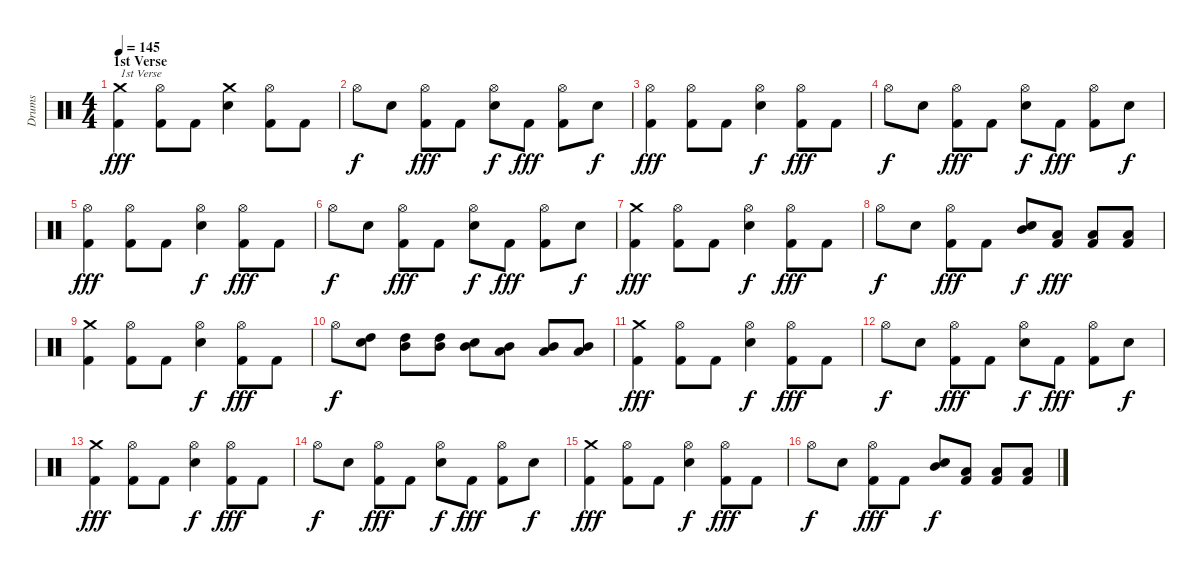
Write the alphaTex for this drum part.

\track ("Drums" "Drums") {instrument percussion}
\staff {score}
\articulation defaults
\ts (4 4)
\section ("" "1st Verse")
\tempo 145
\clef neutral
\ks c
("Crash medium (hit)" "Kick (hit) 2").4{txt "1st Verse" dy fff} ("Hi-Hat (open)" "Kick (hit) 2").8 "Kick (hit) 2".8 ("Crash medium (hit)" "Snare (hit) 2").4 ("Hi-Hat (open)" "Kick (hit) 2").8 "Kick (hit) 2".8 |
"Hi-Hat (open)".8{dy f} "Snare (hit) 2".8 ("Hi-Hat (open)" "Kick (hit) 2").8{dy fff} "Kick (hit) 2".8 ("Hi-Hat (open)" "Snare (hit) 2").8{dy f} "Kick (hit) 2".8{dy fff} ("Hi-Hat (open)" "Kick (hit) 2").8 "Snare (hit) 2".8{dy f} |
("Hi-Hat (open)" "Kick (hit) 2").4{dy fff} ("Hi-Hat (open)" "Kick (hit) 2").8 "Kick (hit) 2".8 ("Hi-Hat (open)" "Snare (hit) 2").4{dy f} ("Hi-Hat (open)" "Kick (hit) 2").8{dy fff} "Kick (hit) 2".8 |
"Hi-Hat (open)".8{dy f} "Snare (hit) 2".8 ("Hi-Hat (open)" "Kick (hit) 2").8{dy fff} "Kick (hit) 2".8 ("Hi-Hat (open)" "Snare (hit) 2").8{dy f} "Kick (hit) 2".8{dy fff} ("Hi-Hat (open)" "Kick (hit) 2").8 "Snare (hit) 2".8{dy f} |
("Hi-Hat (open)" "Kick (hit) 2").4{dy fff} ("Hi-Hat (open)" "Kick (hit) 2").8 "Kick (hit) 2".8 ("Hi-Hat (open)" "Snare (hit) 2").4{dy f} ("Hi-Hat (open)" "Kick (hit) 2").8{dy fff} "Kick (hit) 2".8 |
"Hi-Hat (open)".8{dy f} "Snare (hit) 2".8 ("Hi-Hat (open)" "Kick (hit) 2").8{dy fff} "Kick (hit) 2".8 ("Hi-Hat (open)" "Snare (hit) 2").8{dy f} "Kick (hit) 2".8{dy fff} ("Hi-Hat (open)" "Kick (hit) 2").8 "Snare (hit) 2".8{dy f} |
("Crash medium (hit)" "Kick (hit) 2").4{dy fff} ("Hi-Hat (open)" "Kick (hit) 2").8 "Kick (hit) 2".8 ("Hi-Hat (open)" "Snare (hit) 2").4{dy f} ("Hi-Hat (open)" "Kick (hit) 2").8{dy fff} "Kick (hit) 2".8 |
"Hi-Hat (open)".8{dy f} "Snare (hit) 2".8 ("Hi-Hat (open)" "Kick (hit) 2").8{dy fff} "Kick (hit) 2".8 ("Snare (hit) 2" "Mid Tom (hit)").8{dy f} ("Low Tom (hit)" "Kick (hit) 2").8{dy fff} ("Low Tom (hit)" "Kick (hit) 2").8 ("Low Tom (hit)" "Kick (hit) 2").8 |
("Crash medium (hit)" "Kick (hit) 2").4 ("Hi-Hat (open)" "Kick (hit) 2").8 "Kick (hit) 2".8 ("Hi-Hat (open)" "Snare (hit) 2").4{dy f} ("Hi-Hat (open)" "Kick (hit) 2").8{dy fff} "Kick (hit) 2".8 |
"Hi-Hat (open)".8{dy f} ("Snare (hit) 2" "High Tom (hit)").8 ("High Tom (hit)" "Mid Tom (hit)").8 ("High Tom (hit)" "Mid Tom (hit)").8 ("Snare (hit) 2" "Mid Tom (hit)").8 ("Mid Tom (hit)" "Low Tom (hit)").8 ("Mid Tom (hit)" "Low Tom (hit)").8 ("Mid Tom (hit)" "Low Tom (hit)").8 |
("Crash medium (hit)" "Kick (hit) 2").4{dy fff} ("Hi-Hat (open)" "Kick (hit) 2").8 "Kick (hit) 2".8 ("Hi-Hat (open)" "Snare (hit) 2").4{dy f} ("Hi-Hat (open)" "Kick (hit) 2").8{dy fff} "Kick (hit) 2".8 |
"Hi-Hat (open)".8{dy f} "Snare (hit) 2".8 ("Hi-Hat (open)" "Kick (hit) 2").8{dy fff} "Kick (hit) 2".8 ("Hi-Hat (open)" "Snare (hit) 2").8{dy f} "Kick (hit) 2".8{dy fff} ("Hi-Hat (open)" "Kick (hit) 2").8 "Snare (hit) 2".8{dy f} |
("Crash medium (hit)" "Kick (hit) 2").4{dy fff} ("Hi-Hat (open)" "Kick (hit) 2").8 "Kick (hit) 2".8 ("Hi-Hat (open)" "Snare (hit) 2").4{dy f} ("Hi-Hat (open)" "Kick (hit) 2").8{dy fff} "Kick (hit) 2".8 |
"Hi-Hat (open)".8{dy f} "Snare (hit) 2".8 ("Hi-Hat (open)" "Kick (hit) 2").8{dy fff} "Kick (hit) 2".8 ("Hi-Hat (open)" "Snare (hit) 2").8{dy f} "Kick (hit) 2".8{dy fff} ("Hi-Hat (open)" "Kick (hit) 2").8 "Snare (hit) 2".8{dy f} |
("Crash medium (hit)" "Kick (hit) 2").4{dy fff} ("Hi-Hat (open)" "Kick (hit) 2").8 "Kick (hit) 2".8 ("Hi-Hat (open)" "Snare (hit) 2").4{dy f} ("Hi-Hat (open)" "Kick (hit) 2").8{dy fff} "Kick (hit) 2".8 |
"Hi-Hat (open)".8{dy f} "Snare (hit) 2".8 ("Hi-Hat (open)" "Kick (hit) 2").8{dy fff} "Kick (hit) 2".8 ("Snare (hit) 2" "Mid Tom (hit)").8{dy f} ("Low Tom (hit)" "Kick (hit) 2").8 ("Low Tom (hit)" "Kick (hit) 2").8 ("Low Tom (hit)" "Kick (hit) 2").8
